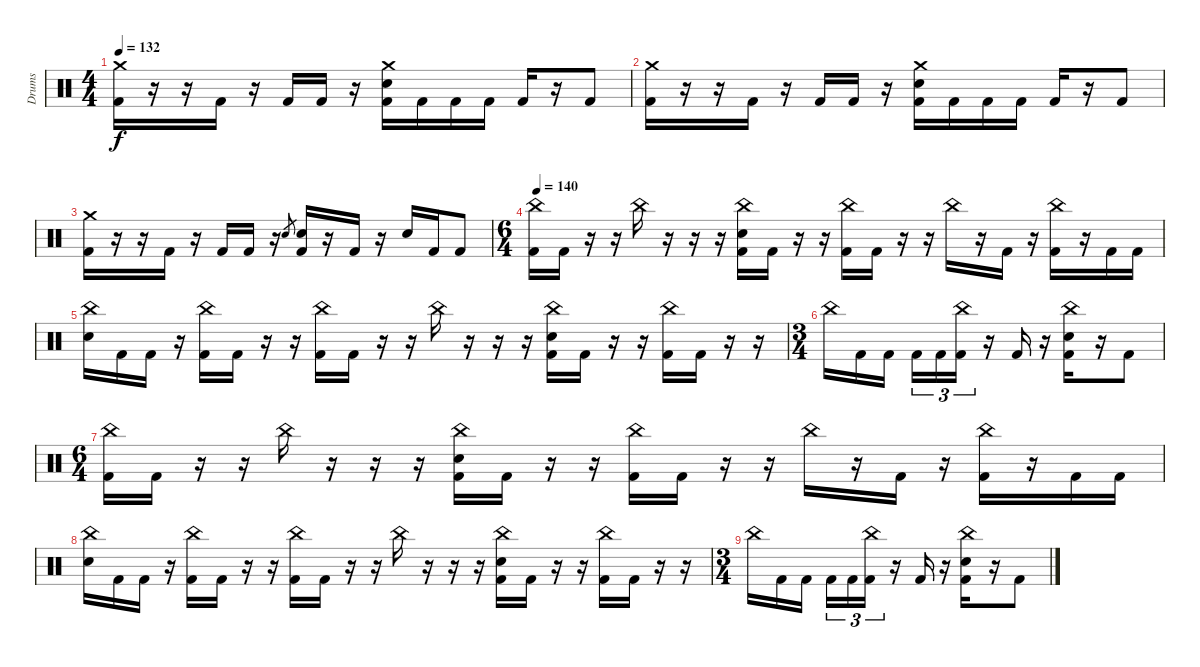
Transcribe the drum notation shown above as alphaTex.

\track ("Drums" "Drums") {instrument percussion}
\staff {score}
\articulation defaults
\ts (4 4)
\tempo 132
\clef neutral
\ks c
("Crash medium (hit)" "Kick (hit) 2").16{dy f} r.16 r.16 "Kick (hit) 2".16 r.16 "Kick (hit) 2".16 "Kick (hit) 2".16 r.16 ("Crash medium (hit)" "Electric Snare (hit)" "Kick (hit) 2").16 "Kick (hit) 2".16 "Kick (hit) 2".16 "Kick (hit) 2".16 "Kick (hit) 2".16 r.16 "Kick (hit) 2".8 |
("Crash medium (hit)" "Kick (hit) 2").16 r.16 r.16 "Kick (hit) 2".16 r.16 "Kick (hit) 2".16 "Kick (hit) 2".16 r.16 ("Crash medium (hit)" "Electric Snare (hit)" "Kick (hit) 2").16 "Kick (hit) 2".16 "Kick (hit) 2".16 "Kick (hit) 2".16 "Kick (hit) 2".16 r.16 "Kick (hit) 2".8 |
("Crash medium (hit)" "Kick (hit) 2").16 r.16 r.16 "Kick (hit) 2".16 r.16 "Kick (hit) 2".16 "Kick (hit) 2".16 r.16 "Electric Snare (hit)".8{gr} ("Electric Snare (hit)" "Kick (hit) 2").16 r.16 "Kick (hit) 2".16 r.16 "Electric Snare (hit)".16 "Kick (hit) 2".16 "Kick (hit) 2".8 |
\ts (6 4)
\tempo 140
("China (hit)" "Kick (hit) 2").16 "Kick (hit) 2".16 r.16 r.16 "China (hit)".16 r.16 r.16 r.16 ("China (hit)" "Electric Snare (hit)" "Kick (hit) 2").16 "Kick (hit) 2".16 r.16 r.16 ("China (hit)" "Kick (hit) 2").16 "Kick (hit) 2".16 r.16 r.16 "China (hit)".16 r.16 "Kick (hit) 2".16 r.16 ("China (hit)" "Kick (hit) 2").16 r.16 "Kick (hit) 2".16 "Kick (hit) 2".16 |
("China (hit)" "Electric Snare (hit)").16 "Kick (hit) 2".16 "Kick (hit) 2".16 r.16 ("China (hit)" "Kick (hit) 2").16 "Kick (hit) 2".16 r.16 r.16 ("China (hit)" "Kick (hit) 2").16 "Kick (hit) 2".16 r.16 r.16 "China (hit)".16 r.16 r.16 r.16 ("China (hit)" "Electric Snare (hit)" "Kick (hit) 2").16 "Kick (hit) 2".16 r.16 r.16 ("China (hit)" "Kick (hit) 2").16 "Kick (hit) 2".16 r.16 r.16 |
\ts (3 4)
"China (hit)".16 "Kick (hit) 2".16 "Kick (hit) 2".16{beam splitsecondary} "Kick (hit) 2".16{tu (3 2)} "Kick (hit) 2".16{tu (3 2)} ("China (hit)" "Kick (hit) 2").16{tu (3 2)} r.16 "Kick (hit) 2".16 r.16 ("China (hit)" "Electric Snare (hit)" "Kick (hit) 2").16 r.16 "Kick (hit) 2".8 |
\ts (6 4)
("China (hit)" "Kick (hit) 2").16 "Kick (hit) 2".16 r.16 r.16 "China (hit)".16 r.16 r.16 r.16 ("China (hit)" "Electric Snare (hit)" "Kick (hit) 2").16 "Kick (hit) 2".16 r.16 r.16 ("China (hit)" "Kick (hit) 2").16 "Kick (hit) 2".16 r.16 r.16 "China (hit)".16 r.16 "Kick (hit) 2".16 r.16 ("China (hit)" "Kick (hit) 2").16 r.16 "Kick (hit) 2".16 "Kick (hit) 2".16 |
("China (hit)" "Electric Snare (hit)").16 "Kick (hit) 2".16 "Kick (hit) 2".16 r.16 ("China (hit)" "Kick (hit) 2").16 "Kick (hit) 2".16 r.16 r.16 ("China (hit)" "Kick (hit) 2").16 "Kick (hit) 2".16 r.16 r.16 "China (hit)".16 r.16 r.16 r.16 ("China (hit)" "Electric Snare (hit)" "Kick (hit) 2").16 "Kick (hit) 2".16 r.16 r.16 ("China (hit)" "Kick (hit) 2").16 "Kick (hit) 2".16 r.16 r.16 |
\ts (3 4)
"China (hit)".16 "Kick (hit) 2".16 "Kick (hit) 2".16{beam splitsecondary} "Kick (hit) 2".16{tu (3 2)} "Kick (hit) 2".16{tu (3 2)} ("China (hit)" "Kick (hit) 2").16{tu (3 2)} r.16 "Kick (hit) 2".16 r.16 ("China (hit)" "Electric Snare (hit)" "Kick (hit) 2").16 r.16 "Kick (hit) 2".8
